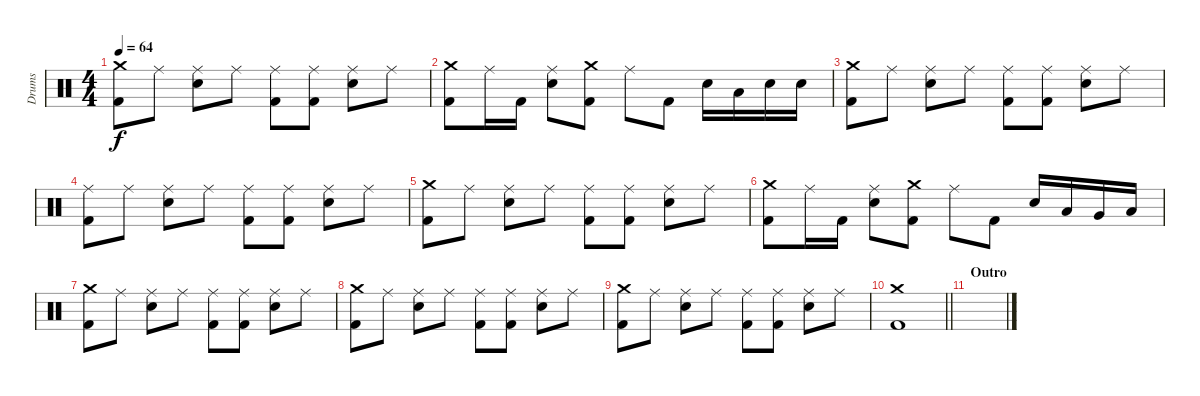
\track ("Drums" "Drums") {instrument percussion}
\staff {score}
\articulation defaults
\ts (4 4)
\tempo 64
\clef neutral
\ks c
("Crash medium (hit)" "Kick (hit) 2").8{dy f} "Ride (middle)".8 ("Ride (middle)" "Snare (hit) 2").8 "Ride (middle)".8 ("Ride (middle)" "Kick (hit) 2").8 ("Ride (middle)" "Kick (hit) 2").8 ("Ride (middle)" "Snare (hit) 2").8 "Ride (middle)".8 |
("Crash medium (hit)" "Kick (hit) 2").8 "Ride (middle)".16 "Kick (hit) 2".16 ("Ride (middle)" "Snare (hit) 2").8 ("Crash medium (hit)" "Kick (hit) 2").8 "Ride (middle)".8 "Kick (hit) 2".8 "Snare (hit) 2".16 "Low Tom (hit)".16 "Snare (hit) 2".16 "Snare (hit) 2".16 |
("Crash medium (hit)" "Kick (hit) 2").8 "Ride (middle)".8 ("Ride (middle)" "Snare (hit) 2").8 "Ride (middle)".8 ("Ride (middle)" "Kick (hit) 2").8 ("Ride (middle)" "Kick (hit) 2").8 ("Ride (middle)" "Snare (hit) 2").8 "Ride (middle)".8 |
("Ride (middle)" "Kick (hit) 2").8 "Ride (middle)".8 ("Ride (middle)" "Snare (hit) 2").8 "Ride (middle)".8 ("Ride (middle)" "Kick (hit) 2").8 ("Ride (middle)" "Kick (hit) 2").8 ("Ride (middle)" "Snare (hit) 2").8 "Ride (middle)".8 |
("Crash medium (hit)" "Kick (hit) 2").8 "Ride (middle)".8 ("Ride (middle)" "Snare (hit) 2").8 "Ride (middle)".8 ("Ride (middle)" "Kick (hit) 2").8 ("Ride (middle)" "Kick (hit) 2").8 ("Ride (middle)" "Snare (hit) 2").8 "Ride (middle)".8 |
("Crash medium (hit)" "Kick (hit) 2").8 "Ride (middle)".16 "Kick (hit) 2".16 ("Ride (middle)" "Snare (hit) 2").8 ("Crash medium (hit)" "Kick (hit) 2").8 "Ride (middle)".8 "Kick (hit) 2".8 "Snare (hit) 2".16 "Low Tom (hit)".16 "Very Low Tom (hit)".16 "Low Floor Tom (hit)".16 |
("Crash medium (hit)" "Kick (hit) 2").8 "Ride (middle)".8 ("Ride (middle)" "Snare (hit) 2").8 "Ride (middle)".8 ("Ride (middle)" "Kick (hit) 2").8 ("Ride (middle)" "Kick (hit) 2").8 ("Ride (middle)" "Snare (hit) 2").8 "Ride (middle)".8 |
("Crash medium (hit)" "Kick (hit) 2").8 "Ride (middle)".8 ("Ride (middle)" "Snare (hit) 2").8 "Ride (middle)".8 ("Ride (middle)" "Kick (hit) 2").8 ("Ride (middle)" "Kick (hit) 2").8 ("Ride (middle)" "Snare (hit) 2").8 "Ride (middle)".8 |
("Crash medium (hit)" "Kick (hit) 2").8 "Ride (middle)".8 ("Ride (middle)" "Snare (hit) 2").8 "Ride (middle)".8 ("Ride (middle)" "Kick (hit) 2").8 ("Ride (middle)" "Kick (hit) 2").8 ("Ride (middle)" "Snare (hit) 2").8 "Ride (middle)".8 |
\barLineRight lightlight
("Crash medium (hit)" "Kick (hit) 2").1 |
\section ("" "Outro")
